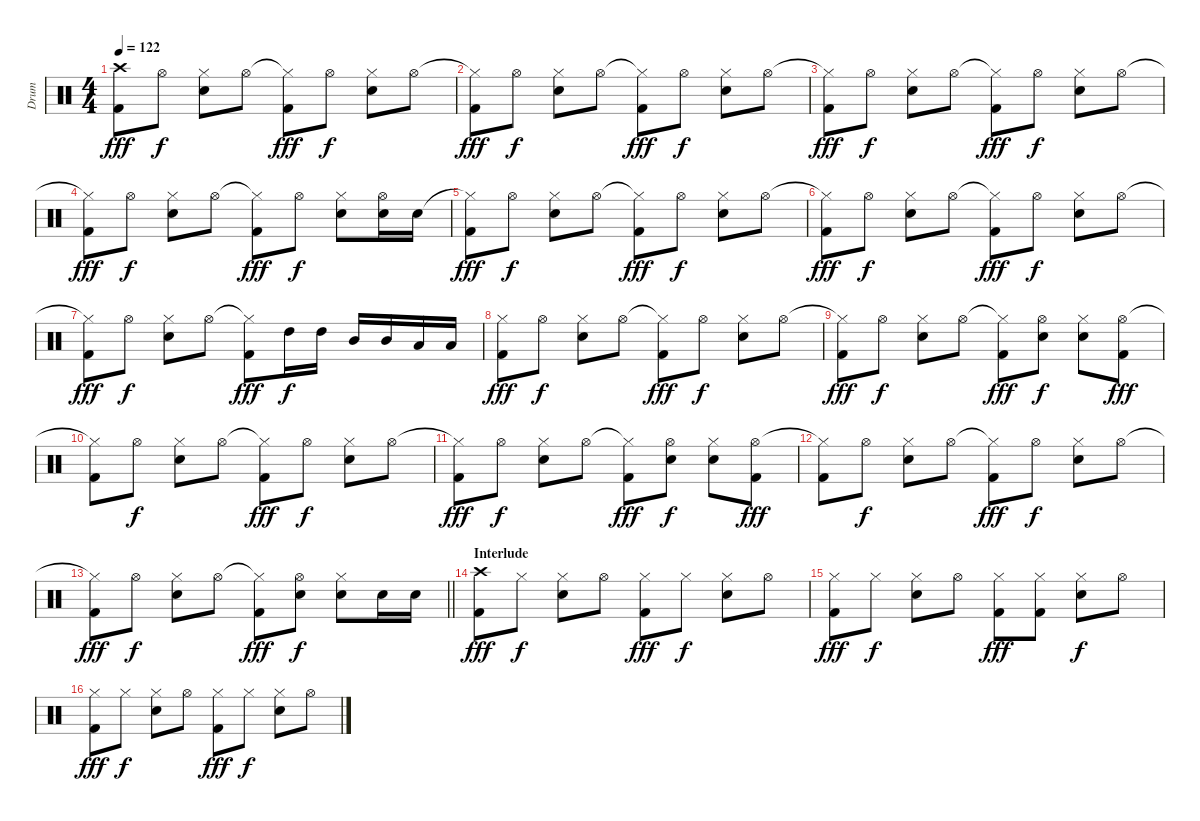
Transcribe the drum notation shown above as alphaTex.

\track ("Drum" "Drum") {instrument percussion}
\staff {score}
\articulation defaults
\ts (4 4)
\tempo 122
\clef neutral
\ks c
("Crash high (hit)" "Kick (hit) 2").8{dy fff} "Hi-Hat (open)".8{dy f} ("Hi-Hat (closed)" "Electric Snare (hit)").8 "Hi-Hat (open)".8 ("Hi-Hat (closed)"{t} "Kick (hit) 2").8{dy fff} "Hi-Hat (open)".8{dy f} ("Hi-Hat (closed)" "Electric Snare (hit)").8 "Hi-Hat (open)".8 |
("Hi-Hat (closed)"{t} "Kick (hit) 2").8{dy fff} "Hi-Hat (open)".8{dy f} ("Hi-Hat (closed)" "Electric Snare (hit)").8 "Hi-Hat (open)".8 ("Hi-Hat (closed)"{t} "Kick (hit) 2").8{dy fff} "Hi-Hat (open)".8{dy f} ("Hi-Hat (closed)" "Electric Snare (hit)").8 "Hi-Hat (open)".8 |
("Hi-Hat (closed)"{t} "Kick (hit) 2").8{dy fff} "Hi-Hat (open)".8{dy f} ("Hi-Hat (closed)" "Electric Snare (hit)").8 "Hi-Hat (open)".8 ("Hi-Hat (closed)"{t} "Kick (hit) 2").8{dy fff} "Hi-Hat (open)".8{dy f} ("Hi-Hat (closed)" "Electric Snare (hit)").8 "Hi-Hat (open)".8 |
("Hi-Hat (closed)"{t} "Kick (hit) 2").8{dy fff} "Hi-Hat (open)".8{dy f} ("Hi-Hat (closed)" "Electric Snare (hit)").8 "Hi-Hat (open)".8 ("Hi-Hat (closed)"{t} "Kick (hit) 2").8{dy fff} "Hi-Hat (open)".8{dy f} ("Hi-Hat (closed)" "Electric Snare (hit)").8 ("Hi-Hat (open)" "Electric Snare (hit)").16 "Electric Snare (hit)".16 |
("Hi-Hat (closed)"{t} "Kick (hit) 2").8{dy fff} "Hi-Hat (open)".8{dy f} ("Hi-Hat (closed)" "Electric Snare (hit)").8 "Hi-Hat (open)".8 ("Hi-Hat (closed)"{t} "Kick (hit) 2").8{dy fff} "Hi-Hat (open)".8{dy f} ("Hi-Hat (closed)" "Electric Snare (hit)").8 "Hi-Hat (open)".8 |
("Hi-Hat (closed)"{t} "Kick (hit) 2").8{dy fff} "Hi-Hat (open)".8{dy f} ("Hi-Hat (closed)" "Electric Snare (hit)").8 "Hi-Hat (open)".8 ("Hi-Hat (closed)"{t} "Kick (hit) 2").8{dy fff} "Hi-Hat (open)".8{dy f} ("Hi-Hat (closed)" "Electric Snare (hit)").8 "Hi-Hat (open)".8 |
("Hi-Hat (closed)"{t} "Kick (hit) 2").8{dy fff} "Hi-Hat (open)".8{dy f} ("Hi-Hat (closed)" "Electric Snare (hit)").8 "Hi-Hat (open)".8 ("Hi-Hat (closed)"{t} "Kick (hit) 2").8{dy fff} "High Tom (hit)".16{dy f} "High Tom (hit)".16 "Mid Tom (hit)".16 "Mid Tom (hit)".16 "Low Tom (hit)".16 "Low Tom (hit)".16 |
("Hi-Hat (closed)" "Kick (hit) 2").8{dy fff} "Hi-Hat (open)".8{dy f} ("Hi-Hat (closed)" "Electric Snare (hit)").8 "Hi-Hat (open)".8 ("Hi-Hat (closed)"{t} "Kick (hit) 2").8{dy fff} "Hi-Hat (open)".8{dy f} ("Hi-Hat (closed)" "Electric Snare (hit)").8 "Hi-Hat (open)".8 |
("Hi-Hat (closed)"{t} "Kick (hit) 2").8{dy fff} "Hi-Hat (open)".8{dy f} ("Hi-Hat (closed)" "Electric Snare (hit)").8 "Hi-Hat (open)".8 ("Hi-Hat (closed)"{t} "Kick (hit) 2").8{dy fff} ("Hi-Hat (open)" "Hand Clap (hit)").8{dy f} ("Hi-Hat (closed)" "Hand Clap (hit)").8 ("Hi-Hat (open)" "Kick (hit) 2").8{dy fff} |
("Hi-Hat (closed)"{t} "Kick (hit) 2").8 "Hi-Hat (open)".8{dy f} ("Hi-Hat (closed)" "Electric Snare (hit)").8 "Hi-Hat (open)".8 ("Hi-Hat (closed)"{t} "Kick (hit) 2").8{dy fff} "Hi-Hat (open)".8{dy f} ("Hi-Hat (closed)" "Electric Snare (hit)").8 "Hi-Hat (open)".8 |
("Hi-Hat (closed)"{t} "Kick (hit) 2").8{dy fff} "Hi-Hat (open)".8{dy f} ("Hi-Hat (closed)" "Electric Snare (hit)").8 "Hi-Hat (open)".8 ("Hi-Hat (closed)"{t} "Kick (hit) 2").8{dy fff} ("Hi-Hat (open)" "Hand Clap (hit)").8{dy f} ("Hi-Hat (closed)" "Hand Clap (hit)").8 ("Hi-Hat (open)" "Kick (hit) 2").8{dy fff} |
("Hi-Hat (closed)"{t} "Kick (hit) 2").8 "Hi-Hat (open)".8{dy f} ("Hi-Hat (closed)" "Electric Snare (hit)").8 "Hi-Hat (open)".8 ("Hi-Hat (closed)"{t} "Kick (hit) 2").8{dy fff} "Hi-Hat (open)".8{dy f} ("Hi-Hat (closed)" "Electric Snare (hit)").8 "Hi-Hat (open)".8 |
\barLineRight lightlight
("Hi-Hat (closed)"{t} "Kick (hit) 2").8{dy fff} "Hi-Hat (open)".8{dy f} ("Hi-Hat (closed)" "Electric Snare (hit)").8 "Hi-Hat (open)".8 ("Hi-Hat (closed)"{t} "Kick (hit) 2").8{dy fff} ("Hi-Hat (open)" "Hand Clap (hit)").8{dy f} ("Hi-Hat (closed)" "Hand Clap (hit)").8 "Electric Snare (hit)".16 "Electric Snare (hit)".16 |
\section ("" "Interlude")
("Crash high (hit)" "Kick (hit) 2").8{dy fff} "Hi-Hat (closed)".8{dy f} ("Hi-Hat (closed)" "Electric Snare (hit)").8 "Hi-Hat (open)".8 ("Hi-Hat (closed)" "Kick (hit) 2").8{dy fff} "Hi-Hat (closed)".8{dy f} ("Hi-Hat (closed)" "Electric Snare (hit)").8 "Hi-Hat (open)".8 |
("Hi-Hat (closed)" "Kick (hit) 2").8{dy fff} "Hi-Hat (closed)".8{dy f} ("Hi-Hat (closed)" "Electric Snare (hit)").8 "Hi-Hat (open)".8 ("Hi-Hat (closed)" "Kick (hit) 2").8{dy fff} ("Hi-Hat (closed)" "Kick (hit) 2").8 ("Hi-Hat (closed)" "Electric Snare (hit)").8{dy f} "Hi-Hat (open)".8 |
("Hi-Hat (closed)" "Kick (hit) 2").8{dy fff} "Hi-Hat (closed)".8{dy f} ("Hi-Hat (closed)" "Electric Snare (hit)").8 "Hi-Hat (open)".8 ("Hi-Hat (closed)" "Kick (hit) 2").8{dy fff} "Hi-Hat (closed)".8{dy f} ("Hi-Hat (closed)" "Electric Snare (hit)").8 "Hi-Hat (open)".8
